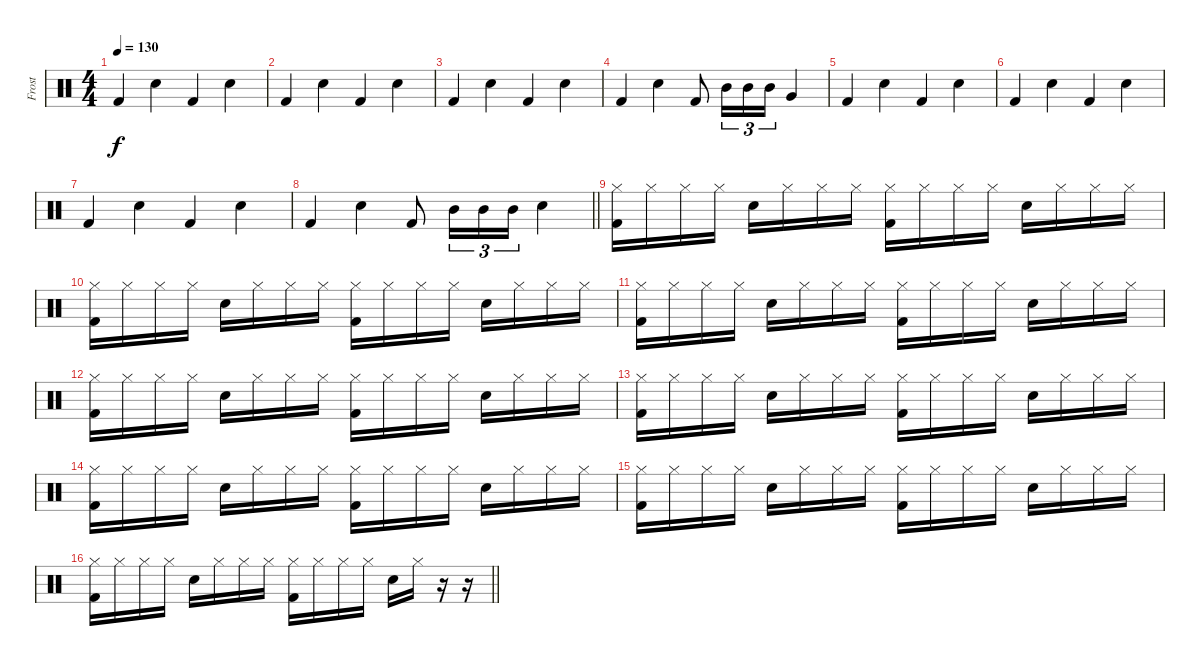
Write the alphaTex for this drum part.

\track ("Frost" "Frost") {instrument percussion}
\staff {score}
\articulation defaults
\ts (4 4)
\tempo 130
\clef neutral
\ks c "Kick (hit) 2".4{dy f} "Snare (hit) 2".4 "Kick (hit) 2".4 "Snare (hit) 2".4
|
"Kick (hit) 2".4 "Snare (hit) 2".4 "Kick (hit) 2".4 "Snare (hit) 2".4 |
"Kick (hit) 2".4 "Snare (hit) 2".4 "Kick (hit) 2".4 "Snare (hit) 2".4 |
"Kick (hit) 2".4 "Snare (hit) 2".4 "Kick (hit) 2".8 "Mid Tom (hit)".16{tu (3 2)} "Mid Tom (hit)".16{tu (3 2)} "Mid Tom (hit)".16{tu (3 2)} "Very Low Tom (hit)".4 |
"Kick (hit) 2".4 "Snare (hit) 2".4 "Kick (hit) 2".4 "Snare (hit) 2".4 |
"Kick (hit) 2".4 "Snare (hit) 2".4 "Kick (hit) 2".4 "Snare (hit) 2".4 |
"Kick (hit) 2".4 "Snare (hit) 2".4 "Kick (hit) 2".4 "Snare (hit) 2".4 |
\barLineRight lightlight "Kick (hit) 2".4 "Snare (hit) 2".4 "Kick (hit) 2".8 "Mid Tom (hit)".16{tu (3 2)} "Mid Tom (hit)".16{tu (3 2)} "Mid Tom (hit)".16{tu (3 2)} "Snare (hit) 2".4
|
("Kick (hit) 2" "Hi-Hat (closed)").16 "Hi-Hat (closed)".16 "Hi-Hat (closed)".16 "Hi-Hat (closed)".16 "Snare (hit) 2".16 "Hi-Hat (closed)".16 "Hi-Hat (closed)".16 "Hi-Hat (closed)".16 ("Kick (hit) 2" "Hi-Hat (closed)").16 "Hi-Hat (closed)".16 "Hi-Hat (closed)".16 "Hi-Hat (closed)".16 "Snare (hit) 2".16 "Hi-Hat (closed)".16 "Hi-Hat (closed)".16 "Hi-Hat (closed)".16 |
("Kick (hit) 2" "Hi-Hat (closed)").16 "Hi-Hat (closed)".16 "Hi-Hat (closed)".16 "Hi-Hat (closed)".16 "Snare (hit) 2".16 "Hi-Hat (closed)".16 "Hi-Hat (closed)".16 "Hi-Hat (closed)".16 ("Kick (hit) 2" "Hi-Hat (closed)").16 "Hi-Hat (closed)".16 "Hi-Hat (closed)".16 "Hi-Hat (closed)".16 "Snare (hit) 2".16 "Hi-Hat (closed)".16 "Hi-Hat (closed)".16 "Hi-Hat (closed)".16 |
("Kick (hit) 2" "Hi-Hat (closed)").16 "Hi-Hat (closed)".16 "Hi-Hat (closed)".16 "Hi-Hat (closed)".16 "Snare (hit) 2".16 "Hi-Hat (closed)".16 "Hi-Hat (closed)".16 "Hi-Hat (closed)".16 ("Kick (hit) 2" "Hi-Hat (closed)").16 "Hi-Hat (closed)".16 "Hi-Hat (closed)".16 "Hi-Hat (closed)".16 "Snare (hit) 2".16 "Hi-Hat (closed)".16 "Hi-Hat (closed)".16 "Hi-Hat (closed)".16 |
("Kick (hit) 2" "Hi-Hat (closed)").16 "Hi-Hat (closed)".16 "Hi-Hat (closed)".16 "Hi-Hat (closed)".16 "Snare (hit) 2".16 "Hi-Hat (closed)".16 "Hi-Hat (closed)".16 "Hi-Hat (closed)".16 ("Kick (hit) 2" "Hi-Hat (closed)").16 "Hi-Hat (closed)".16 "Hi-Hat (closed)".16 "Hi-Hat (closed)".16 "Snare (hit) 2".16 "Hi-Hat (closed)".16 "Hi-Hat (closed)".16 "Hi-Hat (closed)".16 |
("Kick (hit) 2" "Hi-Hat (closed)").16 "Hi-Hat (closed)".16 "Hi-Hat (closed)".16 "Hi-Hat (closed)".16 "Snare (hit) 2".16 "Hi-Hat (closed)".16 "Hi-Hat (closed)".16 "Hi-Hat (closed)".16 ("Kick (hit) 2" "Hi-Hat (closed)").16 "Hi-Hat (closed)".16 "Hi-Hat (closed)".16 "Hi-Hat (closed)".16 "Snare (hit) 2".16 "Hi-Hat (closed)".16 "Hi-Hat (closed)".16 "Hi-Hat (closed)".16 |
("Kick (hit) 2" "Hi-Hat (closed)").16 "Hi-Hat (closed)".16 "Hi-Hat (closed)".16 "Hi-Hat (closed)".16 "Snare (hit) 2".16 "Hi-Hat (closed)".16 "Hi-Hat (closed)".16 "Hi-Hat (closed)".16 ("Kick (hit) 2" "Hi-Hat (closed)").16 "Hi-Hat (closed)".16 "Hi-Hat (closed)".16 "Hi-Hat (closed)".16 "Snare (hit) 2".16 "Hi-Hat (closed)".16 "Hi-Hat (closed)".16 "Hi-Hat (closed)".16 |
("Kick (hit) 2" "Hi-Hat (closed)").16 "Hi-Hat (closed)".16 "Hi-Hat (closed)".16 "Hi-Hat (closed)".16 "Snare (hit) 2".16 "Hi-Hat (closed)".16 "Hi-Hat (closed)".16 "Hi-Hat (closed)".16 ("Kick (hit) 2" "Hi-Hat (closed)").16 "Hi-Hat (closed)".16 "Hi-Hat (closed)".16 "Hi-Hat (closed)".16 "Snare (hit) 2".16 "Hi-Hat (closed)".16 "Hi-Hat (closed)".16 "Hi-Hat (closed)".16 |
\barLineRight lightlight
("Kick (hit) 2" "Hi-Hat (closed)").16 "Hi-Hat (closed)".16 "Hi-Hat (closed)".16 "Hi-Hat (closed)".16 "Snare (hit) 2".16 "Hi-Hat (closed)".16 "Hi-Hat (closed)".16 "Hi-Hat (closed)".16 ("Kick (hit) 2" "Hi-Hat (closed)").16 "Hi-Hat (closed)".16 "Hi-Hat (closed)".16 "Hi-Hat (closed)".16 "Snare (hit) 2".16 "Hi-Hat (closed)".16 r.16 r.16
